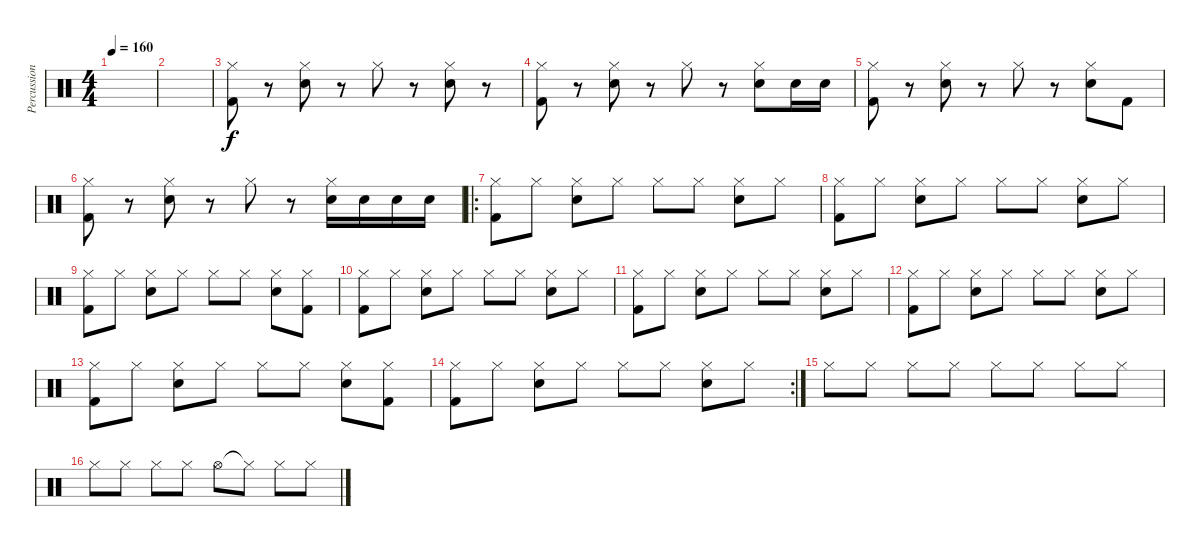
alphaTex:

\track ("Percussion" "Percussion") {instrument percussion}
\staff {score}
\articulation defaults
\ts (4 4)
\tempo 160
\clef neutral
\ks c
|
|
("Kick (hit) 2" "Hi-Hat (closed)").8 r.8 ("Snare (hit) 2" "Hi-Hat (closed)").8 r.8 "Hi-Hat (closed)".8 r.8 ("Snare (hit) 2" "Hi-Hat (closed)").8 r.8 |
("Kick (hit) 2" "Hi-Hat (closed)").8 r.8 ("Snare (hit) 2" "Hi-Hat (closed)").8 r.8 "Hi-Hat (closed)".8 r.8 ("Snare (hit) 2" "Hi-Hat (closed)").8 "Snare (hit) 2".16 "Snare (hit) 2".16 |
("Kick (hit) 2" "Hi-Hat (closed)").8 r.8 ("Snare (hit) 2" "Hi-Hat (closed)").8 r.8 "Hi-Hat (closed)".8 r.8 ("Snare (hit) 2" "Hi-Hat (closed)").8 "Kick (hit) 2".8 |
("Kick (hit) 2" "Hi-Hat (closed)").8 r.8 ("Snare (hit) 2" "Hi-Hat (closed)").8 r.8 "Hi-Hat (closed)".8 r.8 ("Snare (hit) 2" "Hi-Hat (closed)").16 "Snare (hit) 2".16 "Snare (hit) 2".16 "Snare (hit) 2".16 |
\ro
("Kick (hit) 2" "Hi-Hat (closed)").8 "Hi-Hat (closed)".8 ("Snare (hit) 2" "Hi-Hat (closed)").8 "Hi-Hat (closed)".8 "Hi-Hat (closed)".8 "Hi-Hat (closed)".8 ("Snare (hit) 2" "Hi-Hat (closed)").8 "Hi-Hat (closed)".8 |
("Kick (hit) 2" "Hi-Hat (closed)").8 "Hi-Hat (closed)".8 ("Snare (hit) 2" "Hi-Hat (closed)").8 "Hi-Hat (closed)".8 "Hi-Hat (closed)".8 "Hi-Hat (closed)".8 ("Snare (hit) 2" "Hi-Hat (closed)").8 "Hi-Hat (closed)".8 |
("Kick (hit) 2" "Hi-Hat (closed)").8 "Hi-Hat (closed)".8 ("Snare (hit) 2" "Hi-Hat (closed)").8 "Hi-Hat (closed)".8 "Hi-Hat (closed)".8 "Hi-Hat (closed)".8 ("Snare (hit) 2" "Hi-Hat (closed)").8 ("Kick (hit) 2" "Hi-Hat (closed)").8 |
("Kick (hit) 2" "Hi-Hat (closed)").8 "Hi-Hat (closed)".8 ("Snare (hit) 2" "Hi-Hat (closed)").8 "Hi-Hat (closed)".8 "Hi-Hat (closed)".8 "Hi-Hat (closed)".8 ("Snare (hit) 2" "Hi-Hat (closed)").8 "Hi-Hat (closed)".8 |
("Kick (hit) 2" "Hi-Hat (closed)").8 "Hi-Hat (closed)".8 ("Snare (hit) 2" "Hi-Hat (closed)").8 "Hi-Hat (closed)".8 "Hi-Hat (closed)".8 "Hi-Hat (closed)".8 ("Snare (hit) 2" "Hi-Hat (closed)").8 "Hi-Hat (closed)".8 |
("Kick (hit) 2" "Hi-Hat (closed)").8 "Hi-Hat (closed)".8 ("Snare (hit) 2" "Hi-Hat (closed)").8 "Hi-Hat (closed)".8 "Hi-Hat (closed)".8 "Hi-Hat (closed)".8 ("Snare (hit) 2" "Hi-Hat (closed)").8 "Hi-Hat (closed)".8 |
("Kick (hit) 2" "Hi-Hat (closed)").8 "Hi-Hat (closed)".8 ("Snare (hit) 2" "Hi-Hat (closed)").8 "Hi-Hat (closed)".8 "Hi-Hat (closed)".8 "Hi-Hat (closed)".8 ("Snare (hit) 2" "Hi-Hat (closed)").8 ("Kick (hit) 2" "Hi-Hat (closed)").8 |
\rc 2
("Kick (hit) 2" "Hi-Hat (closed)").8 "Hi-Hat (closed)".8 ("Snare (hit) 2" "Hi-Hat (closed)").8 "Hi-Hat (closed)".8 "Hi-Hat (closed)".8 "Hi-Hat (closed)".8 ("Snare (hit) 2" "Hi-Hat (closed)").8 "Hi-Hat (closed)".8 |
"Hi-Hat (closed)".8 "Hi-Hat (closed)".8 "Hi-Hat (closed)".8 "Hi-Hat (closed)".8 "Hi-Hat (closed)".8 "Hi-Hat (closed)".8 "Hi-Hat (closed)".8 "Hi-Hat (closed)".8 |
"Hi-Hat (closed)".8 "Hi-Hat (closed)".8 "Hi-Hat (closed)".8 "Hi-Hat (closed)".8 "Hi-Hat (open)".8 "Hi-Hat (closed)"{t}.8 "Hi-Hat (closed)".8 "Hi-Hat (closed)".8
